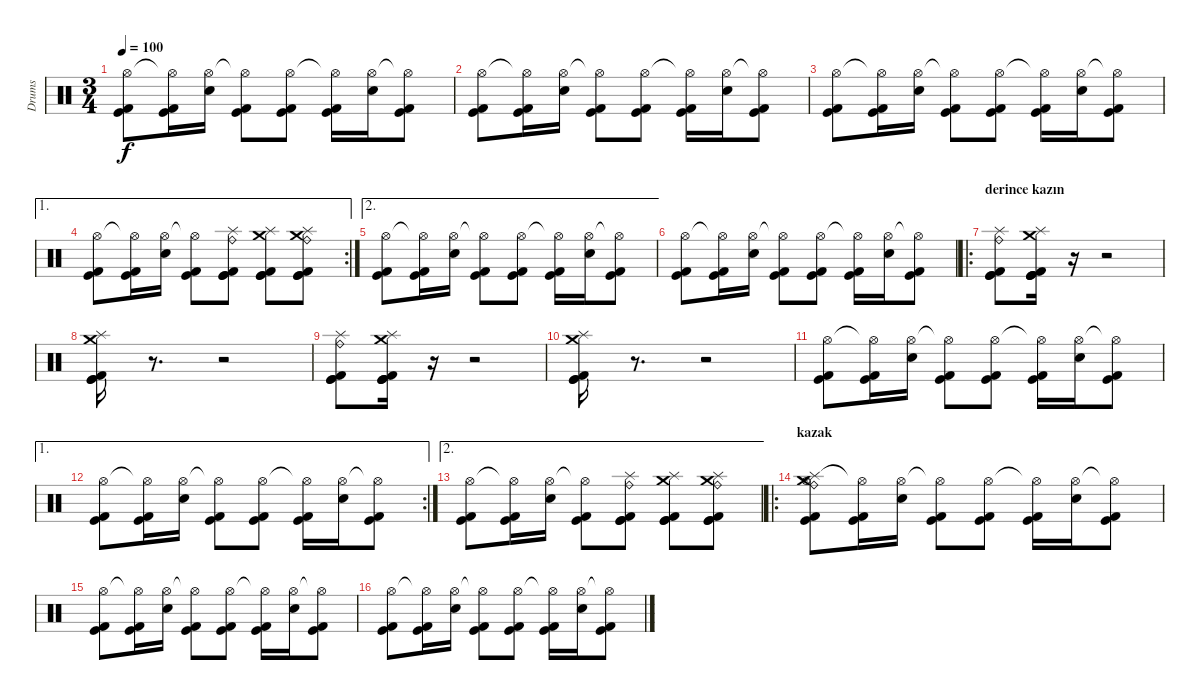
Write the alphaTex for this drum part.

\track ("Drums" "Drums") {instrument percussion}
\staff {score}
\articulation defaults
\ts (3 4)
\tempo 100
\clef neutral
\ks c
("Hi-Hat (open)" "Kick (hit)" "Kick (hit) 2").8{dy f} ("Hi-Hat (open)"{t} "Kick (hit)" "Kick (hit) 2").16 ("Hi-Hat (open)" "Snare (hit) 2").16 ("Hi-Hat (open)"{t} "Kick (hit)" "Kick (hit) 2").8 ("Hi-Hat (open)" "Kick (hit)" "Kick (hit) 2").8 ("Hi-Hat (open)"{t} "Kick (hit)" "Kick (hit) 2").16 ("Hi-Hat (open)" "Snare (hit) 2").16 ("Hi-Hat (open)"{t} "Kick (hit)" "Kick (hit) 2").8 |
("Hi-Hat (open)" "Kick (hit)" "Kick (hit) 2").8 ("Hi-Hat (open)"{t} "Kick (hit)" "Kick (hit) 2").16 ("Hi-Hat (open)" "Snare (hit) 2").16 ("Hi-Hat (open)"{t} "Kick (hit)" "Kick (hit) 2").8 ("Hi-Hat (open)" "Kick (hit)" "Kick (hit) 2").8 ("Hi-Hat (open)"{t} "Kick (hit)" "Kick (hit) 2").16 ("Hi-Hat (open)" "Snare (hit) 2").16 ("Hi-Hat (open)"{t} "Kick (hit)" "Kick (hit) 2").8 |
("Hi-Hat (open)" "Kick (hit)" "Kick (hit) 2").8 ("Hi-Hat (open)"{t} "Kick (hit)" "Kick (hit) 2").16 ("Hi-Hat (open)" "Snare (hit) 2").16 ("Hi-Hat (open)"{t} "Kick (hit)" "Kick (hit) 2").8 ("Hi-Hat (open)" "Kick (hit)" "Kick (hit) 2").8 ("Hi-Hat (open)"{t} "Kick (hit)" "Kick (hit) 2").16 ("Hi-Hat (open)" "Snare (hit) 2").16 ("Hi-Hat (open)"{t} "Kick (hit)" "Kick (hit) 2").8 |
\ae 1
\rc 2
("Hi-Hat (open)" "Kick (hit)" "Kick (hit) 2").8 ("Hi-Hat (open)"{t} "Kick (hit)" "Kick (hit) 2").16 ("Hi-Hat (open)" "Snare (hit) 2").16 ("Hi-Hat (open)"{t} "Kick (hit)" "Kick (hit) 2").8 ("Splash (hit)" "Ride (bell)" "Kick (hit)" "Kick (hit)" "Kick (hit) 2").8 ("Crash medium (hit)" "Splash (hit)" "Kick (hit)" "Kick (hit)" "Kick (hit) 2").8 ("Crash medium (hit)" "Ride (bell)" "Splash (hit)" "Kick (hit)" "Kick (hit)" "Kick (hit) 2").8 |
\ae 2
("Hi-Hat (open)" "Kick (hit)" "Kick (hit) 2").8 ("Hi-Hat (open)"{t} "Kick (hit)" "Kick (hit) 2").16 ("Hi-Hat (open)" "Snare (hit) 2").16 ("Hi-Hat (open)"{t} "Kick (hit)" "Kick (hit) 2").8 ("Hi-Hat (open)" "Kick (hit)" "Kick (hit) 2").8 ("Hi-Hat (open)"{t} "Kick (hit)" "Kick (hit) 2").16 ("Hi-Hat (open)" "Snare (hit) 2").16 ("Hi-Hat (open)"{t} "Kick (hit)" "Kick (hit) 2").8 |
("Hi-Hat (open)" "Kick (hit)" "Kick (hit) 2").8 ("Hi-Hat (open)"{t} "Kick (hit)" "Kick (hit) 2").16 ("Hi-Hat (open)" "Snare (hit) 2").16 ("Hi-Hat (open)"{t} "Kick (hit)" "Kick (hit) 2").8 ("Hi-Hat (open)" "Kick (hit)" "Kick (hit) 2").8 ("Hi-Hat (open)"{t} "Kick (hit)" "Kick (hit) 2").16 ("Hi-Hat (open)" "Snare (hit) 2").16 ("Hi-Hat (open)"{t} "Kick (hit)" "Kick (hit) 2").8 |
\ro
\section ("" "derince kazın")
("Splash (hit)" "Ride (bell)" "Kick (hit) 2" "Kick (hit)" "Kick (hit)").8 ("Crash medium (hit)" "Splash (hit)" "Kick (hit) 2" "Kick (hit)" "Kick (hit)" "Kick (hit)").16 r.16 r.2 |
("Splash (hit)" "Crash medium (hit)" "Kick (hit) 2" "Kick (hit)" "Kick (hit)").16 r.8{d} r.2 |
("Splash (hit)" "Ride (bell)" "Kick (hit) 2" "Kick (hit)" "Kick (hit)").8 ("Crash medium (hit)" "Splash (hit)" "Kick (hit) 2" "Kick (hit)" "Kick (hit)" "Kick (hit)").16 r.16 r.2 |
("Splash (hit)" "Crash medium (hit)" "Kick (hit) 2" "Kick (hit)" "Kick (hit)").16 r.8{d} r.2 |
("Hi-Hat (open)" "Kick (hit)" "Kick (hit) 2").8 ("Hi-Hat (open)"{t} "Kick (hit)" "Kick (hit) 2").16 ("Hi-Hat (open)" "Snare (hit) 2").16 ("Hi-Hat (open)"{t} "Kick (hit)" "Kick (hit) 2").8 ("Hi-Hat (open)" "Kick (hit)" "Kick (hit) 2").8 ("Hi-Hat (open)"{t} "Kick (hit)" "Kick (hit) 2").16 ("Hi-Hat (open)" "Snare (hit) 2").16 ("Hi-Hat (open)"{t} "Kick (hit)" "Kick (hit) 2").8 |
\ae 1
\rc 2
("Hi-Hat (open)" "Kick (hit)" "Kick (hit) 2").8 ("Hi-Hat (open)"{t} "Kick (hit)" "Kick (hit) 2").16 ("Hi-Hat (open)" "Snare (hit) 2").16 ("Hi-Hat (open)"{t} "Kick (hit)" "Kick (hit) 2").8 ("Hi-Hat (open)" "Kick (hit)" "Kick (hit) 2").8 ("Hi-Hat (open)"{t} "Kick (hit)" "Kick (hit) 2").16 ("Hi-Hat (open)" "Snare (hit) 2").16 ("Hi-Hat (open)"{t} "Kick (hit)" "Kick (hit) 2").8 |
\ae 2
("Hi-Hat (open)" "Kick (hit)" "Kick (hit) 2").8 ("Hi-Hat (open)"{t} "Kick (hit)" "Kick (hit) 2").16 ("Hi-Hat (open)" "Snare (hit) 2").16 ("Hi-Hat (open)"{t} "Kick (hit)" "Kick (hit) 2").8 ("Splash (hit)" "Ride (bell)" "Kick (hit)" "Kick (hit)" "Kick (hit) 2").8 ("Crash medium (hit)" "Splash (hit)" "Kick (hit)" "Kick (hit)" "Kick (hit) 2").8 ("Crash medium (hit)" "Ride (bell)" "Splash (hit)" "Kick (hit)" "Kick (hit)" "Kick (hit) 2").8 |
\ro
\section ("" "kazak")
("Splash (hit)" "Crash medium (hit)" "Hi-Hat (open)" "Kick (hit)" "Kick (hit) 2" "Ride (bell)").8 ("Hi-Hat (open)"{t} "Kick (hit)" "Kick (hit) 2").16 ("Hi-Hat (open)" "Snare (hit) 2").16 ("Hi-Hat (open)"{t} "Kick (hit)" "Kick (hit) 2").8 ("Hi-Hat (open)" "Kick (hit)" "Kick (hit) 2").8 ("Hi-Hat (open)"{t} "Kick (hit)" "Kick (hit) 2").16 ("Hi-Hat (open)" "Snare (hit) 2").16 ("Hi-Hat (open)"{t} "Kick (hit)" "Kick (hit) 2").8 |
("Hi-Hat (open)" "Kick (hit)" "Kick (hit) 2").8 ("Hi-Hat (open)"{t} "Kick (hit)" "Kick (hit) 2").16 ("Hi-Hat (open)" "Snare (hit) 2").16 ("Hi-Hat (open)"{t} "Kick (hit)" "Kick (hit) 2").8 ("Hi-Hat (open)" "Kick (hit)" "Kick (hit) 2").8 ("Hi-Hat (open)"{t} "Kick (hit)" "Kick (hit) 2").16 ("Hi-Hat (open)" "Snare (hit) 2").16 ("Hi-Hat (open)"{t} "Kick (hit)" "Kick (hit) 2").8 |
("Hi-Hat (open)" "Kick (hit)" "Kick (hit) 2").8 ("Hi-Hat (open)"{t} "Kick (hit)" "Kick (hit) 2").16 ("Hi-Hat (open)" "Snare (hit) 2").16 ("Hi-Hat (open)"{t} "Kick (hit)" "Kick (hit) 2").8 ("Hi-Hat (open)" "Kick (hit)" "Kick (hit) 2").8 ("Hi-Hat (open)"{t} "Kick (hit)" "Kick (hit) 2").16 ("Hi-Hat (open)" "Snare (hit) 2").16 ("Hi-Hat (open)"{t} "Kick (hit)" "Kick (hit) 2").8
